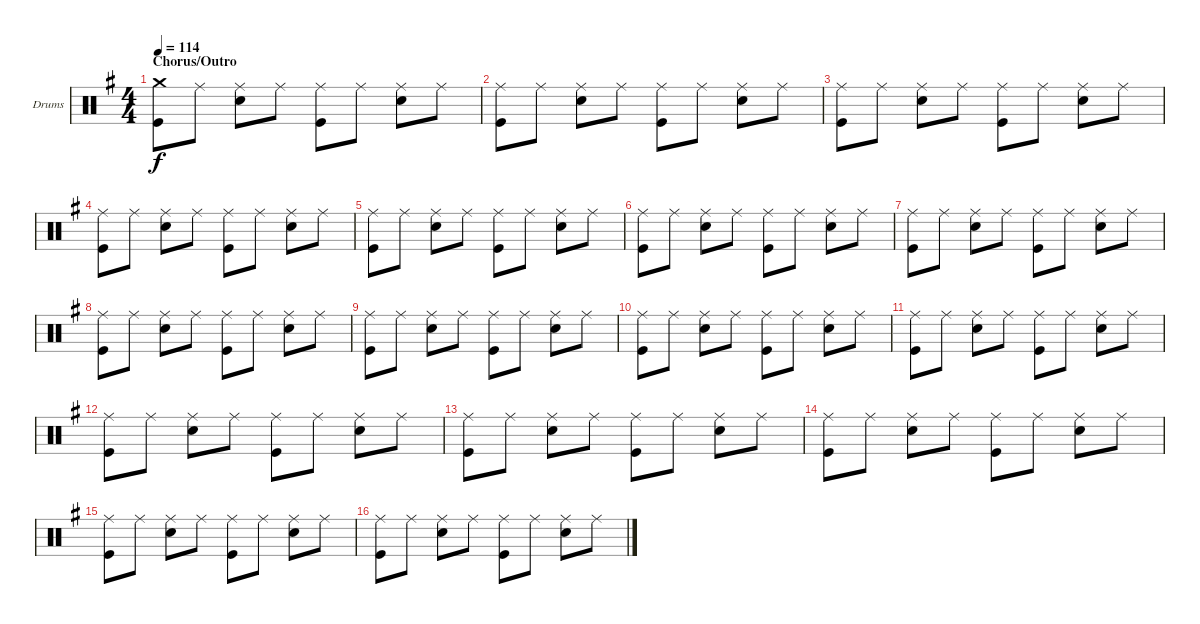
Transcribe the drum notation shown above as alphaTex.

\bracketExtendMode groupsimilarinstruments
\firstSystemTrackNameOrientation horizontal
\otherSystemsTrackNameOrientation horizontal
\track ("Drumkit" "Drums") {instrument percussion}
\staff {score}
\articulation defaults
\ts (4 4)
\section ("" "Chorus/Outro")
\tempo 114
\clef neutral
\scale
1.04288
\ks g
("Crash medium (hit)" "Kick (hit)").8{dy f} "Ride (middle)".8 ("Ride (middle)" "Snare (hit) 2").8 "Ride (middle)".8 ("Ride (middle)" "Kick (hit)").8 "Ride (middle)".8 ("Ride (middle)" "Snare (hit) 2").8 "Ride (middle)".8 |
\scale
0.957125 ("Ride (middle)" "Kick (hit)").8 "Ride (middle)".8 ("Ride (middle)" "Snare (hit) 2").8 "Ride (middle)".8 ("Ride (middle)" "Kick (hit)").8 "Ride (middle)".8 ("Ride (middle)" "Snare (hit) 2").8 "Ride (middle)".8 |
\scale
1.04288 ("Ride (middle)" "Kick (hit)").8 "Ride (middle)".8 ("Ride (middle)" "Snare (hit) 2").8 "Ride (middle)".8 ("Ride (middle)" "Kick (hit)").8 "Ride (middle)".8 ("Ride (middle)" "Snare (hit) 2").8 "Ride (middle)".8 |
\scale
0.957125 ("Ride (middle)" "Kick (hit)").8 "Ride (middle)".8 ("Ride (middle)" "Snare (hit) 2").8 "Ride (middle)".8 ("Ride (middle)" "Kick (hit)").8 "Ride (middle)".8 ("Ride (middle)" "Snare (hit) 2").8 "Ride (middle)".8 |
\scale
1.04288 ("Ride (middle)" "Kick (hit)").8 "Ride (middle)".8 ("Ride (middle)" "Snare (hit) 2").8 "Ride (middle)".8 ("Ride (middle)" "Kick (hit)").8 "Ride (middle)".8 ("Ride (middle)" "Snare (hit) 2").8 "Ride (middle)".8 |
\scale
0.957125 ("Ride (middle)" "Kick (hit)").8 "Ride (middle)".8 ("Ride (middle)" "Snare (hit) 2").8 "Ride (middle)".8 ("Ride (middle)" "Kick (hit)").8 "Ride (middle)".8 ("Ride (middle)" "Snare (hit) 2").8 "Ride (middle)".8 |
\scale
1.04288 ("Ride (middle)" "Kick (hit)").8 "Ride (middle)".8 ("Ride (middle)" "Snare (hit) 2").8 "Ride (middle)".8 ("Ride (middle)" "Kick (hit)").8 "Ride (middle)".8 ("Ride (middle)" "Snare (hit) 2").8 "Ride (middle)".8 |
\scale
0.957125 ("Ride (middle)" "Kick (hit)").8 "Ride (middle)".8 ("Ride (middle)" "Snare (hit) 2").8 "Ride (middle)".8 ("Ride (middle)" "Kick (hit)").8 "Ride (middle)".8 ("Ride (middle)" "Snare (hit) 2").8 "Ride (middle)".8 |
\scale
1.04288 ("Ride (middle)" "Kick (hit)").8 "Ride (middle)".8 ("Ride (middle)" "Snare (hit) 2").8 "Ride (middle)".8 ("Ride (middle)" "Kick (hit)").8 "Ride (middle)".8 ("Ride (middle)" "Snare (hit) 2").8 "Ride (middle)".8 |
\scale
0.957125 ("Ride (middle)" "Kick (hit)").8 "Ride (middle)".8 ("Ride (middle)" "Snare (hit) 2").8 "Ride (middle)".8 ("Ride (middle)" "Kick (hit)").8 "Ride (middle)".8 ("Ride (middle)" "Snare (hit) 2").8 "Ride (middle)".8 |
\scale
1.04288 ("Ride (middle)" "Kick (hit)").8 "Ride (middle)".8 ("Ride (middle)" "Snare (hit) 2").8 "Ride (middle)".8 ("Ride (middle)" "Kick (hit)").8 "Ride (middle)".8 ("Ride (middle)" "Snare (hit) 2").8 "Ride (middle)".8 |
\scale
0.957125 ("Ride (middle)" "Kick (hit)").8 "Ride (middle)".8 ("Ride (middle)" "Snare (hit) 2").8 "Ride (middle)".8 ("Ride (middle)" "Kick (hit)").8 "Ride (middle)".8 ("Ride (middle)" "Snare (hit) 2").8 "Ride (middle)".8 |
\scale
1.04288 ("Ride (middle)" "Kick (hit)").8 "Ride (middle)".8 ("Ride (middle)" "Snare (hit) 2").8 "Ride (middle)".8 ("Ride (middle)" "Kick (hit)").8 "Ride (middle)".8 ("Ride (middle)" "Snare (hit) 2").8 "Ride (middle)".8 |
\scale
0.957125 ("Ride (middle)" "Kick (hit)").8 "Ride (middle)".8 ("Ride (middle)" "Snare (hit) 2").8 "Ride (middle)".8 ("Ride (middle)" "Kick (hit)").8 "Ride (middle)".8 ("Ride (middle)" "Snare (hit) 2").8 "Ride (middle)".8 |
\scale
1.04288 ("Ride (middle)" "Kick (hit)").8 "Ride (middle)".8 ("Ride (middle)" "Snare (hit) 2").8 "Ride (middle)".8 ("Ride (middle)" "Kick (hit)").8 "Ride (middle)".8 ("Ride (middle)" "Snare (hit) 2").8 "Ride (middle)".8 |
\scale
0.957125 ("Ride (middle)" "Kick (hit)").8 "Ride (middle)".8 ("Ride (middle)" "Snare (hit) 2").8 "Ride (middle)".8 ("Ride (middle)" "Kick (hit)").8 "Ride (middle)".8 ("Ride (middle)" "Snare (hit) 2").8 "Ride (middle)".8
